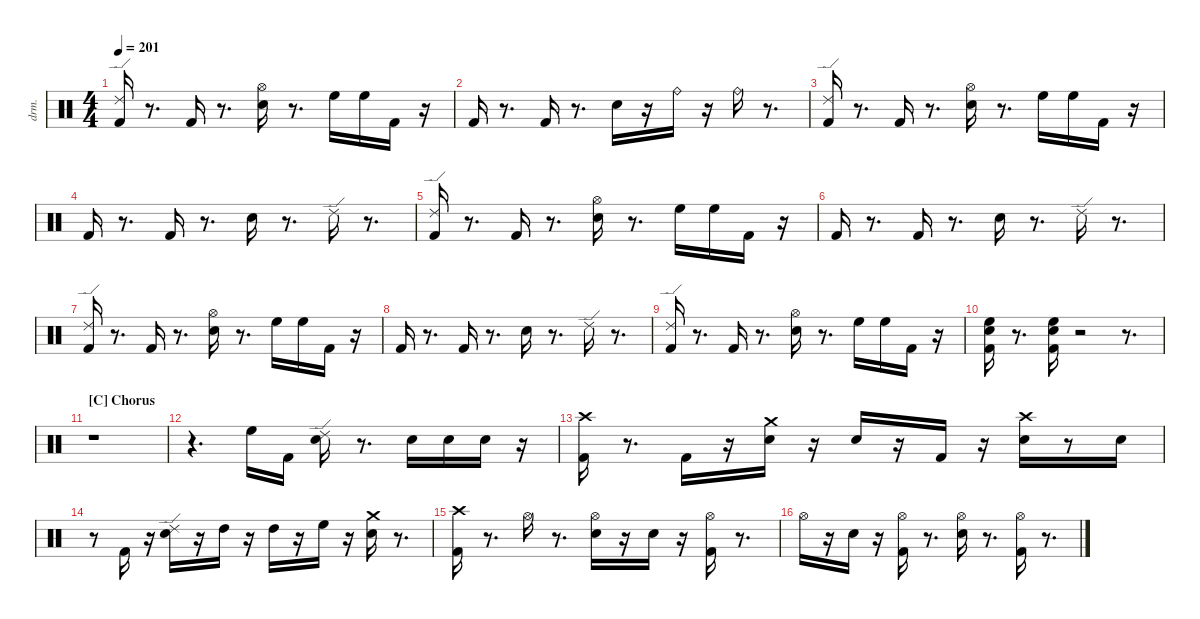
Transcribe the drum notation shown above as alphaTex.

\defaultSystemsLayout 4
\hideDynamics
\bracketExtendMode nobrackets
\otherSystemsTrackNameOrientation horizontal
\track ("Drums" "drm.") {instrument percussion}
\staff {score}
\articulation defaults
\ts (4 4)
\tempo 201
\clef neutral
\ks aminor
("Kick (hit) 2" "Ride (edge) 2").16{dy ff beam Up} r.8{d beam Up} "Kick (hit) 2".16{dy p beam Up} r.8{d beam Up} ("Snare (hit) 2" "Hi-Hat (open)"{acc #}).16{dy ff beam Down} r.8{d beam Down} "High Floor Tom (hit)".16{dy f beam Down} "High Floor Tom (hit)".16{dy p beam Down} "Kick (hit) 2".16{dy mf beam Down} r.16{beam Down} |
"Kick (hit) 2".16{dy fff beam Up} r.8{d beam Up} "Kick (hit) 2".16{dy ff beam Up} r.8{d beam Up} "Snare (hit) 2".16{beam Down} r.16{beam Down} "Ride (bell)".16{dy f beam Down} r.16{beam Down} "Ride (bell)".16{dy ff beam Down} r.8{d beam Down} |
("Kick (hit) 2" "Ride (edge) 2").16{beam Up} r.8{d beam Up} "Kick (hit) 2".16{dy p beam Up} r.8{d beam Up} ("Snare (hit) 2" "Hi-Hat (open)"{acc #}).16{dy ff beam Down} r.8{d beam Down} "High Floor Tom (hit)".16{dy f beam Down} "High Floor Tom (hit)".16{dy p beam Down} "Kick (hit) 2".16{dy mf beam Down} r.16{beam Down} |
"Kick (hit) 2".16{dy fff beam Up} r.8{d beam Up} "Kick (hit) 2".16{dy ff beam Up} r.8{d beam Up} "Snare (hit) 2".16{beam Down} r.8{d beam Down} "Ride (edge) 2".16{dy mf beam Down} r.8{d beam Down} |
("Kick (hit) 2" "Ride (edge) 2").16{dy ff beam Up} r.8{d beam Up} "Kick (hit) 2".16{dy p beam Up} r.8{d beam Up} ("Snare (hit) 2" "Hi-Hat (open)"{acc #}).16{dy ff beam Down} r.8{d beam Down} "High Floor Tom (hit)".16{dy f beam Down} "High Floor Tom (hit)".16{dy p beam Down} "Kick (hit) 2".16{dy mf beam Down} r.16{beam Down} |
"Kick (hit) 2".16{dy fff beam Up} r.8{d beam Up} "Kick (hit) 2".16{dy ff beam Up} r.8{d beam Up} "Snare (hit) 2".16{beam Down} r.8{d beam Down} "Ride (edge) 2".16{dy mf beam Down} r.8{d beam Down} |
("Kick (hit) 2" "Ride (edge) 2").16{dy ff beam Up} r.8{d beam Up} "Kick (hit) 2".16{dy p beam Up} r.8{d beam Up} ("Snare (hit) 2" "Hi-Hat (open)"{acc #}).16{dy ff beam Down} r.8{d beam Down} "High Floor Tom (hit)".16{dy f beam Down} "High Floor Tom (hit)".16{dy p beam Down} "Kick (hit) 2".16{dy mf beam Down} r.16{beam Down} |
"Kick (hit) 2".16{dy fff beam Up} r.8{d beam Up} "Kick (hit) 2".16{dy ff beam Up} r.8{d beam Up} "Snare (hit) 2".16{beam Down} r.8{d beam Down} "Ride (edge) 2".16{dy mf beam Down} r.8{d beam Down} |
("Kick (hit) 2" "Ride (edge) 2").16{dy ff beam Up} r.8{d beam Up} "Kick (hit) 2".16{dy p beam Up} r.8{d beam Up} ("Snare (hit) 2" "Hi-Hat (open)"{acc #}).16{dy ff beam Down} r.8{d beam Down} "High Floor Tom (hit)".16{dy f beam Down} "High Floor Tom (hit)".16{dy p beam Down} "Kick (hit) 2".16{dy mf beam Down} r.16{beam Down} |
("Kick (hit) 2" "Snare (hit) 2" "High Floor Tom (hit)").16{dy ff beam Down} r.8{d beam Down} ("Kick (hit) 2" "Snare (hit) 2" "High Floor Tom (hit)").16{beam Down} r.2{beam Down} r.8{d beam Down} |
\section ("C" "Chorus")
r.1{beam Down} |
r.4{d beam Down} "High Floor Tom (hit)".16{beam Down} "Kick (hit) 2".16{beam Down} ("Snare (hit) 2" "Ride (edge) 2").16{dy fff beam Down} r.8{d beam Down} "Snare (hit) 2".16{dy f beam Down} "Snare (hit) 2".16{dy ppp beam Down} "Snare (hit) 2".16{dy mf beam Down} r.16{beam Down} |
("Kick (hit) 2" "Crash high (hit)"{acc #}).16{dy fff beam Down} r.8{d beam Down} "Kick (hit) 2".16{dy ff beam Down} r.16{beam Down} ("Snare (hit) 2" "Crash medium (hit)").16{beam Down} r.16{beam Down} "Snare (hit) 2".16{dy pp beam Up} r.16{beam Up} "Kick (hit) 2".16{dy ff beam Up} r.16{beam Up} ("Snare (hit) 2" "Crash high (hit)"{acc #}).16{beam Down} r.8{beam Down} "Snare (hit) 2".16{dy ppp beam Down} |
r.8{beam Down} "Kick (hit) 2".16{dy fff beam Up} r.16{beam Up} ("Snare (hit) 2" "Ride (edge) 2").16{beam Down} r.16{beam Down} "High Tom (hit)".16{dy f beam Down} r.16{beam Down} "High Tom (hit)".16{dy mp beam Down} r.16{beam Down} "High Floor Tom (hit)".16{dy ff beam Down} r.16{beam Down} ("Snare (hit) 2" "Crash medium (hit)").16{dy fff beam Down} r.8{d beam Down} |
("Kick (hit) 2" "Crash high (hit)"{acc #}).16{beam Down} r.8{d beam Down} "Hi-Hat (open)"{acc #}.16{dy f beam Down} r.8{d beam Down} ("Snare (hit) 2" "Hi-Hat (open)"{acc #}).16{dy ff beam Down} r.16{beam Down} "Snare (hit) 2".16{dy mf beam Down} r.16{beam Down} ("Kick (hit) 2" "Hi-Hat (open)"{acc #}).16{dy ff beam Down} r.8{d beam Down} |
"Hi-Hat (open)"{acc #}.16{dy fff beam Down} r.16{beam Down} "Snare (hit) 2".16{dy ppp beam Down} r.16{beam Down} ("Kick (hit) 2" "Hi-Hat (open)"{acc #}).16{dy ff beam Down} r.8{d beam Down} ("Snare (hit) 2" "Hi-Hat (open)"{acc #}).16{beam Down} r.8{d beam Down} ("Kick (hit) 2" "Hi-Hat (open)"{acc #}).16{beam Down} r.8{d beam Down}
